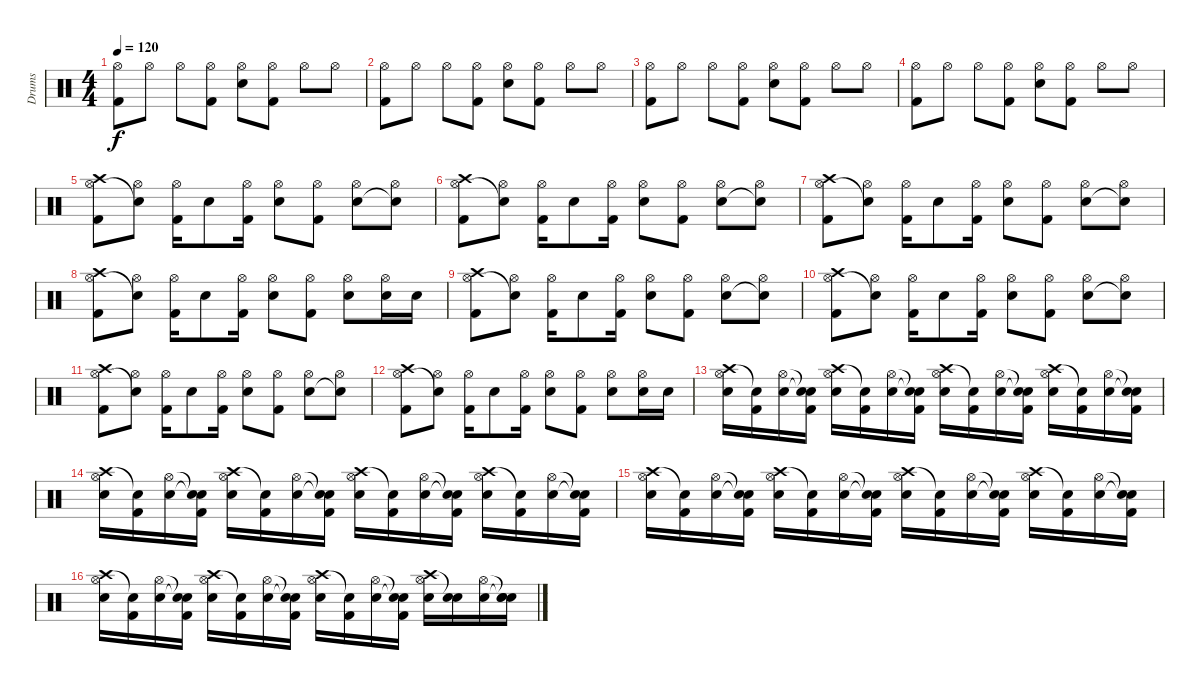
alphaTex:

\track ("Drums" "Drums") {instrument percussion}
\staff {score}
\articulation defaults
\ts (4 4)
\tempo 120
\clef neutral
\ks c
("Hi-Hat (open)" "Kick (hit) 2").8{dy f} "Hi-Hat (open)".8 "Hi-Hat (open)".8 ("Hi-Hat (open)" "Kick (hit) 2").8 ("Hi-Hat (open)" "Electric Snare (hit)").8 ("Hi-Hat (open)" "Kick (hit) 2").8 "Hi-Hat (open)".8 "Hi-Hat (open)".8 |
("Hi-Hat (open)" "Kick (hit) 2").8 "Hi-Hat (open)".8 "Hi-Hat (open)".8 ("Hi-Hat (open)" "Kick (hit) 2").8 ("Hi-Hat (open)" "Electric Snare (hit)").8 ("Hi-Hat (open)" "Kick (hit) 2").8 "Hi-Hat (open)".8 "Hi-Hat (open)".8 |
("Hi-Hat (open)" "Kick (hit) 2").8 "Hi-Hat (open)".8 "Hi-Hat (open)".8 ("Hi-Hat (open)" "Kick (hit) 2").8 ("Hi-Hat (open)" "Electric Snare (hit)").8 ("Hi-Hat (open)" "Kick (hit) 2").8 "Hi-Hat (open)".8 "Hi-Hat (open)".8 |
("Hi-Hat (open)" "Kick (hit) 2").8 "Hi-Hat (open)".8 "Hi-Hat (open)".8 ("Hi-Hat (open)" "Kick (hit) 2").8 ("Hi-Hat (open)" "Electric Snare (hit)").8 ("Hi-Hat (open)" "Kick (hit) 2").8 "Hi-Hat (open)".8 "Hi-Hat (open)".8 |
("Crash high (hit)" "Hi-Hat (open)" "Kick (hit) 2").8 ("Hi-Hat (open)" "Snare (hit)"{t}).8 ("Hi-Hat (open)" "Kick (hit) 2").16 "Electric Snare (hit)".8 ("Hi-Hat (open)" "Kick (hit) 2").16 ("Hi-Hat (open)" "Electric Snare (hit)").8 ("Hi-Hat (open)" "Kick (hit) 2").8 ("Hi-Hat (open)" "Snare (hit) 2").8 ("Hi-Hat (open)" "Snare (hit)"{t}).8 |
("Crash high (hit)" "Hi-Hat (open)" "Kick (hit) 2").8 ("Hi-Hat (open)" "Snare (hit)"{t}).8 ("Hi-Hat (open)" "Kick (hit) 2").16 "Electric Snare (hit)".8 ("Hi-Hat (open)" "Kick (hit) 2").16 ("Hi-Hat (open)" "Electric Snare (hit)").8 ("Hi-Hat (open)" "Kick (hit) 2").8 ("Hi-Hat (open)" "Snare (hit) 2").8 ("Hi-Hat (open)" "Snare (hit)"{t}).8 |
("Crash high (hit)" "Hi-Hat (open)" "Kick (hit) 2").8 ("Hi-Hat (open)" "Snare (hit)"{t}).8 ("Hi-Hat (open)" "Kick (hit) 2").16 "Electric Snare (hit)".8 ("Hi-Hat (open)" "Kick (hit) 2").16 ("Hi-Hat (open)" "Electric Snare (hit)").8 ("Hi-Hat (open)" "Kick (hit) 2").8 ("Hi-Hat (open)" "Snare (hit) 2").8 ("Hi-Hat (open)" "Snare (hit)"{t}).8 |
("Crash high (hit)" "Hi-Hat (open)" "Kick (hit) 2").8 ("Hi-Hat (open)" "Snare (hit)"{t}).8 ("Hi-Hat (open)" "Kick (hit) 2").16 "Electric Snare (hit)".8 ("Hi-Hat (open)" "Kick (hit) 2").16 ("Hi-Hat (open)" "Electric Snare (hit)").8 ("Hi-Hat (open)" "Kick (hit) 2").8 ("Hi-Hat (open)" "Electric Snare (hit)").8 ("Hi-Hat (open)" "Electric Snare (hit)").16 "Electric Snare (hit)".16 |
("Crash high (hit)" "Hi-Hat (open)" "Kick (hit) 2").8 ("Hi-Hat (open)" "Snare (hit)"{t}).8 ("Hi-Hat (open)" "Kick (hit) 2").16 "Electric Snare (hit)".8 ("Hi-Hat (open)" "Kick (hit) 2").16 ("Hi-Hat (open)" "Electric Snare (hit)").8 ("Hi-Hat (open)" "Kick (hit) 2").8 ("Hi-Hat (open)" "Snare (hit) 2").8 ("Hi-Hat (open)" "Snare (hit)"{t}).8 |
("Crash high (hit)" "Hi-Hat (open)" "Kick (hit) 2").8 ("Hi-Hat (open)" "Snare (hit)"{t}).8 ("Hi-Hat (open)" "Kick (hit) 2").16 "Electric Snare (hit)".8 ("Hi-Hat (open)" "Kick (hit) 2").16 ("Hi-Hat (open)" "Electric Snare (hit)").8 ("Hi-Hat (open)" "Kick (hit) 2").8 ("Hi-Hat (open)" "Snare (hit) 2").8 ("Hi-Hat (open)" "Snare (hit)"{t}).8 |
("Crash high (hit)" "Hi-Hat (open)" "Kick (hit) 2").8 ("Hi-Hat (open)" "Snare (hit)"{t}).8 ("Hi-Hat (open)" "Kick (hit) 2").16 "Electric Snare (hit)".8 ("Hi-Hat (open)" "Kick (hit) 2").16 ("Hi-Hat (open)" "Electric Snare (hit)").8 ("Hi-Hat (open)" "Kick (hit) 2").8 ("Hi-Hat (open)" "Snare (hit) 2").8 ("Hi-Hat (open)" "Snare (hit)"{t}).8 |
("Crash high (hit)" "Hi-Hat (open)" "Kick (hit) 2").8 ("Hi-Hat (open)" "Snare (hit)"{t}).8 ("Hi-Hat (open)" "Kick (hit) 2").16 "Electric Snare (hit)".8 ("Hi-Hat (open)" "Kick (hit) 2").16 ("Hi-Hat (open)" "Electric Snare (hit)").8 ("Hi-Hat (open)" "Kick (hit) 2").8 ("Hi-Hat (open)" "Electric Snare (hit)").8 ("Hi-Hat (open)" "Electric Snare (hit)").16 "Electric Snare (hit)".16 |
("Crash high (hit)" "Hi-Hat (open)" "Electric Snare (hit)").16 ("Snare (hit)"{t} "Kick (hit) 2").16 ("Hi-Hat (open)" "Electric Snare (hit)").16 ("Snare (hit)"{t} "Snare (hit)"{t} "Kick (hit) 2").16 ("Crash high (hit)" "Hi-Hat (open)" "Electric Snare (hit)").16 ("Snare (hit)"{t} "Kick (hit) 2").16 ("Hi-Hat (open)" "Electric Snare (hit)").16 ("Snare (hit)"{t} "Snare (hit)"{t} "Kick (hit) 2").16 ("Crash high (hit)" "Hi-Hat (open)" "Electric Snare (hit)").16 ("Snare (hit)"{t} "Kick (hit) 2").16 ("Hi-Hat (open)" "Electric Snare (hit)").16 ("Snare (hit)"{t} "Snare (hit)"{t} "Kick (hit) 2").16 ("Crash high (hit)" "Hi-Hat (open)" "Electric Snare (hit)").16 ("Snare (hit)"{t} "Kick (hit) 2").16 ("Hi-Hat (open)" "Electric Snare (hit)").16 ("Snare (hit)"{t} "Snare (hit)"{t} "Kick (hit) 2").16 |
("Crash high (hit)" "Hi-Hat (open)" "Electric Snare (hit)").16 ("Snare (hit)"{t} "Kick (hit) 2").16 ("Hi-Hat (open)" "Electric Snare (hit)").16 ("Snare (hit)"{t} "Snare (hit)"{t} "Kick (hit) 2").16 ("Crash high (hit)" "Hi-Hat (open)" "Electric Snare (hit)").16 ("Snare (hit)"{t} "Kick (hit) 2").16 ("Hi-Hat (open)" "Electric Snare (hit)").16 ("Snare (hit)"{t} "Snare (hit)"{t} "Kick (hit) 2").16 ("Crash high (hit)" "Hi-Hat (open)" "Electric Snare (hit)").16 ("Snare (hit)"{t} "Kick (hit) 2").16 ("Hi-Hat (open)" "Electric Snare (hit)").16 ("Snare (hit)"{t} "Snare (hit)"{t} "Kick (hit) 2").16 ("Crash high (hit)" "Hi-Hat (open)" "Electric Snare (hit)").16 ("Snare (hit)"{t} "Kick (hit) 2").16 ("Hi-Hat (open)" "Electric Snare (hit)").16 ("Snare (hit)"{t} "Snare (hit)"{t} "Kick (hit) 2").16 |
("Crash high (hit)" "Hi-Hat (open)" "Electric Snare (hit)").16 ("Snare (hit)"{t} "Kick (hit) 2").16 ("Hi-Hat (open)" "Electric Snare (hit)").16 ("Snare (hit)"{t} "Snare (hit)"{t} "Kick (hit) 2").16 ("Crash high (hit)" "Hi-Hat (open)" "Electric Snare (hit)").16 ("Snare (hit)"{t} "Kick (hit) 2").16 ("Hi-Hat (open)" "Electric Snare (hit)").16 ("Snare (hit)"{t} "Snare (hit)"{t} "Kick (hit) 2").16 ("Crash high (hit)" "Hi-Hat (open)" "Electric Snare (hit)").16 ("Snare (hit)"{t} "Kick (hit) 2").16 ("Hi-Hat (open)" "Electric Snare (hit)").16 ("Snare (hit)"{t} "Snare (hit)"{t} "Kick (hit) 2").16 ("Crash high (hit)" "Hi-Hat (open)" "Electric Snare (hit)").16 ("Snare (hit)"{t} "Kick (hit) 2").16 ("Hi-Hat (open)" "Electric Snare (hit)").16 ("Snare (hit)"{t} "Snare (hit)"{t} "Kick (hit) 2").16 |
("Crash high (hit)" "Hi-Hat (open)" "Electric Snare (hit)").16 ("Snare (hit)"{t} "Kick (hit) 2").16 ("Hi-Hat (open)" "Electric Snare (hit)").16 ("Snare (hit)"{t} "Snare (hit)"{t} "Kick (hit) 2").16 ("Crash high (hit)" "Hi-Hat (open)" "Electric Snare (hit)").16 ("Snare (hit)"{t} "Kick (hit) 2").16 ("Hi-Hat (open)" "Electric Snare (hit)").16 ("Snare (hit)"{t} "Snare (hit)"{t} "Kick (hit) 2").16 ("Crash high (hit)" "Hi-Hat (open)" "Electric Snare (hit)").16 ("Snare (hit)"{t} "Kick (hit) 2").16 ("Hi-Hat (open)" "Electric Snare (hit)").16 ("Snare (hit)"{t} "Snare (hit)"{t} "Kick (hit) 2").16 ("Crash high (hit)" "Hi-Hat (open)" "Snare (hit) 2").16 ("Snare (hit)"{t} "Snare (hit) 2").16 ("Hi-Hat (open)" "Snare (hit) 2").16 ("Snare (hit)"{t} "Snare (hit)"{t} "Snare (hit) 2").16
